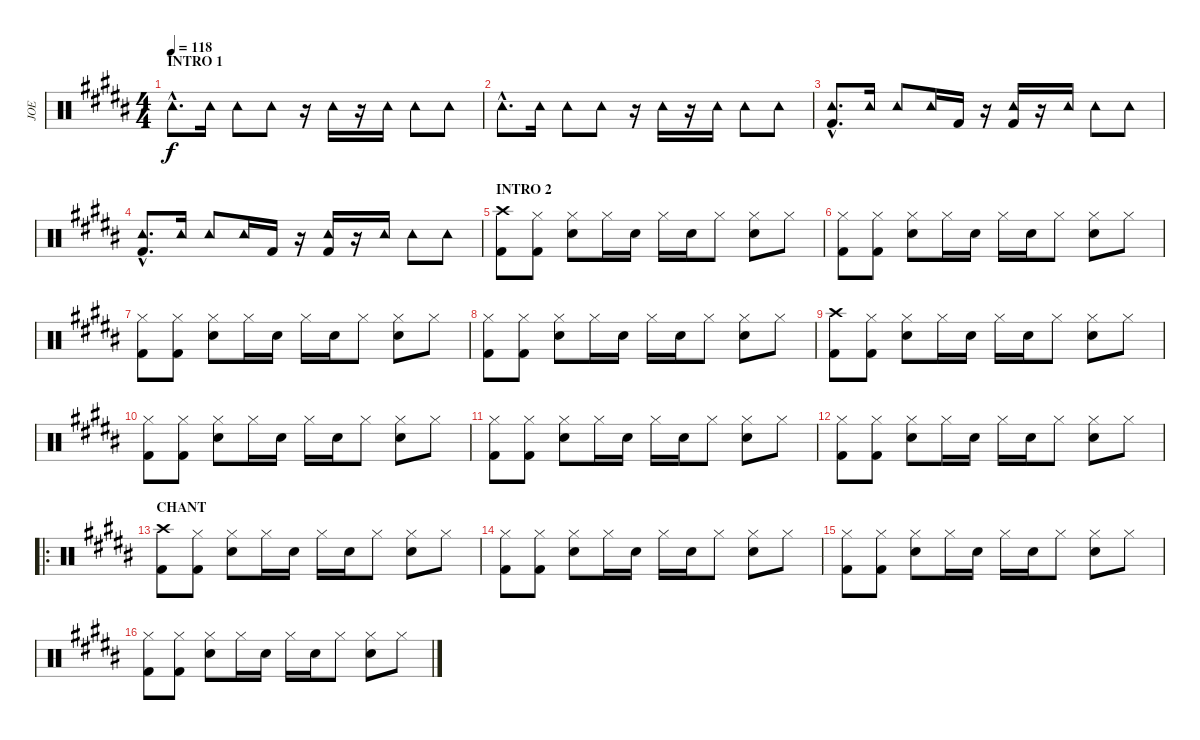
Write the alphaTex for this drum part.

\track ("JOE" "JOE") {instrument percussion}
\staff {score}
\articulation defaults
\ts (4 4)
\section ("" "INTRO 1")
\tempo 118
\clef neutral
\ks b "Tambourine (hit)"{hac}.8{d dy f} "Tambourine (hit)".16 "Tambourine (hit)".8 "Tambourine (hit)".8
r.16 "Tambourine (hit)".16 r.16 "Tambourine (hit)".16 "Tambourine (hit)".8 "Tambourine (hit)".8 |
"Tambourine (hit)"{hac}.8{d} "Tambourine (hit)".16 "Tambourine (hit)".8 "Tambourine (hit)".8 r.16 "Tambourine (hit)".16 r.16 "Tambourine (hit)".16 "Tambourine (hit)".8 "Tambourine (hit)".8 |
("Tambourine (hit)"{hac} "Kick (hit) 2"{hac}).8{d} "Tambourine (hit)".16 "Tambourine (hit)".8 "Tambourine (hit)".16 "Kick (hit) 2".16 r.16 ("Tambourine (hit)" "Kick (hit) 2").16 r.16 "Tambourine (hit)".16 "Tambourine (hit)".8 "Tambourine (hit)".8 |
("Tambourine (hit)"{hac} "Kick (hit) 2"{hac}).8{d} "Tambourine (hit)".16 "Tambourine (hit)".8 "Tambourine (hit)".16 "Kick (hit) 2".16 r.16 ("Tambourine (hit)" "Kick (hit) 2").16 r.16 "Tambourine (hit)".16 "Tambourine (hit)".8 "Tambourine (hit)".8 |
\section ("" "INTRO 2")
("Crash high (hit)" "Kick (hit) 2").8 ("Hi-Hat (closed)" "Kick (hit) 2").8 ("Hi-Hat (closed)" "Snare (hit) 2").8 "Hi-Hat (closed)".16 "Snare (hit) 2".16 "Hi-Hat (closed)".16 "Snare (hit) 2".16 "Hi-Hat (closed)".8 ("Hi-Hat (closed)" "Snare (hit) 2").8 "Hi-Hat (closed)".8 |
("Hi-Hat (closed)" "Kick (hit) 2").8 ("Hi-Hat (closed)" "Kick (hit) 2").8 ("Hi-Hat (closed)" "Snare (hit) 2").8 "Hi-Hat (closed)".16 "Snare (hit) 2".16 "Hi-Hat (closed)".16 "Snare (hit) 2".16 "Hi-Hat (closed)".8 ("Hi-Hat (closed)" "Snare (hit) 2").8 "Hi-Hat (closed)".8 |
("Hi-Hat (closed)" "Kick (hit) 2").8 ("Hi-Hat (closed)" "Kick (hit) 2").8 ("Hi-Hat (closed)" "Snare (hit) 2").8 "Hi-Hat (closed)".16 "Snare (hit) 2".16 "Hi-Hat (closed)".16 "Snare (hit) 2".16 "Hi-Hat (closed)".8 ("Hi-Hat (closed)" "Snare (hit) 2").8 "Hi-Hat (closed)".8 |
("Hi-Hat (closed)" "Kick (hit) 2").8 ("Hi-Hat (closed)" "Kick (hit) 2").8 ("Hi-Hat (closed)" "Snare (hit) 2").8 "Hi-Hat (closed)".16 "Snare (hit) 2".16 "Hi-Hat (closed)".16 "Snare (hit) 2".16 "Hi-Hat (closed)".8 ("Hi-Hat (closed)" "Snare (hit) 2").8 "Hi-Hat (closed)".8 |
("Crash high (hit)" "Kick (hit) 2").8 ("Hi-Hat (closed)" "Kick (hit) 2").8 ("Hi-Hat (closed)" "Snare (hit) 2").8 "Hi-Hat (closed)".16 "Snare (hit) 2".16 "Hi-Hat (closed)".16 "Snare (hit) 2".16 "Hi-Hat (closed)".8 ("Hi-Hat (closed)" "Snare (hit) 2").8 "Hi-Hat (closed)".8 |
("Hi-Hat (closed)" "Kick (hit) 2").8 ("Hi-Hat (closed)" "Kick (hit) 2").8 ("Hi-Hat (closed)" "Snare (hit) 2").8 "Hi-Hat (closed)".16 "Snare (hit) 2".16 "Hi-Hat (closed)".16 "Snare (hit) 2".16 "Hi-Hat (closed)".8 ("Hi-Hat (closed)" "Snare (hit) 2").8 "Hi-Hat (closed)".8 |
("Hi-Hat (closed)" "Kick (hit) 2").8 ("Hi-Hat (closed)" "Kick (hit) 2").8 ("Hi-Hat (closed)" "Snare (hit) 2").8 "Hi-Hat (closed)".16 "Snare (hit) 2".16 "Hi-Hat (closed)".16 "Snare (hit) 2".16 "Hi-Hat (closed)".8 ("Hi-Hat (closed)" "Snare (hit) 2").8 "Hi-Hat (closed)".8 |
("Hi-Hat (closed)" "Kick (hit) 2").8 ("Hi-Hat (closed)" "Kick (hit) 2").8 ("Hi-Hat (closed)" "Snare (hit) 2").8 "Hi-Hat (closed)".16 "Snare (hit) 2".16 "Hi-Hat (closed)".16 "Snare (hit) 2".16 "Hi-Hat (closed)".8 ("Hi-Hat (closed)" "Snare (hit) 2").8 "Hi-Hat (closed)".8 |
\ro
\section ("" "CHANT")
("Crash high (hit)" "Kick (hit) 2").8 ("Hi-Hat (closed)" "Kick (hit) 2").8 ("Hi-Hat (closed)" "Snare (hit) 2").8 "Hi-Hat (closed)".16 "Snare (hit) 2".16 "Hi-Hat (closed)".16 "Snare (hit) 2".16 "Hi-Hat (closed)".8 ("Hi-Hat (closed)" "Snare (hit) 2").8 "Hi-Hat (closed)".8 |
("Hi-Hat (closed)" "Kick (hit) 2").8 ("Hi-Hat (closed)" "Kick (hit) 2").8 ("Hi-Hat (closed)" "Snare (hit) 2").8 "Hi-Hat (closed)".16 "Snare (hit) 2".16 "Hi-Hat (closed)".16 "Snare (hit) 2".16 "Hi-Hat (closed)".8 ("Hi-Hat (closed)" "Snare (hit) 2").8 "Hi-Hat (closed)".8 |
("Hi-Hat (closed)" "Kick (hit) 2").8 ("Hi-Hat (closed)" "Kick (hit) 2").8 ("Hi-Hat (closed)" "Snare (hit) 2").8 "Hi-Hat (closed)".16 "Snare (hit) 2".16 "Hi-Hat (closed)".16 "Snare (hit) 2".16 "Hi-Hat (closed)".8 ("Hi-Hat (closed)" "Snare (hit) 2").8 "Hi-Hat (closed)".8 |
("Hi-Hat (closed)" "Kick (hit) 2").8 ("Hi-Hat (closed)" "Kick (hit) 2").8 ("Hi-Hat (closed)" "Snare (hit) 2").8 "Hi-Hat (closed)".16 "Snare (hit) 2".16 "Hi-Hat (closed)".16 "Snare (hit) 2".16 "Hi-Hat (closed)".8 ("Hi-Hat (closed)" "Snare (hit) 2").8 "Hi-Hat (closed)".8
